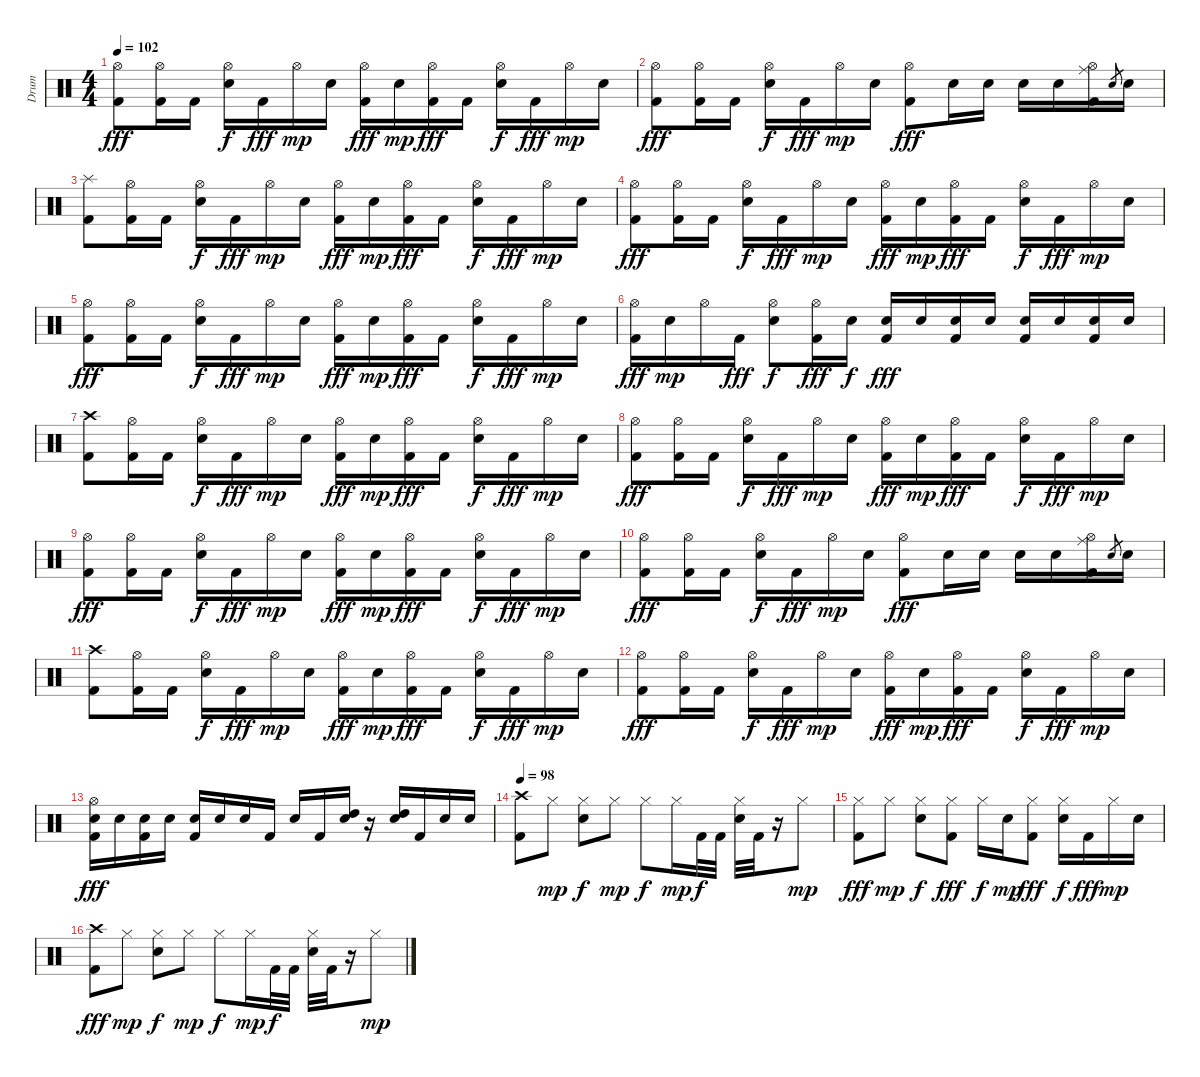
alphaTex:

\track ("Drum" "Drum") {instrument percussion}
\staff {score}
\articulation defaults
\ts (4 4)
\tempo 102
\clef neutral
\ks c
("Hi-Hat (open)" "Kick (hit) 2").8{dy fff} ("Hi-Hat (open)" "Kick (hit) 2").16 "Kick (hit) 2".16 ("Hi-Hat (open)" "Electric Snare (hit)").16{dy f} "Kick (hit) 2".16{dy fff} "Hi-Hat (open)".16{dy mp} "Electric Snare (hit)".16 ("Hi-Hat (open)" "Kick (hit) 2").16{dy fff} "Electric Snare (hit)".16{dy mp} ("Hi-Hat (open)" "Kick (hit) 2").16{dy fff} "Kick (hit) 2".16 ("Hi-Hat (open)" "Electric Snare (hit)").16{dy f} "Kick (hit) 2".16{dy fff} "Hi-Hat (open)".16{dy mp} "Electric Snare (hit)".16 |
("Hi-Hat (open)" "Kick (hit) 2").8{dy fff} ("Hi-Hat (open)" "Kick (hit) 2").16 "Kick (hit) 2".16 ("Hi-Hat (open)" "Electric Snare (hit)").16{dy f} "Kick (hit) 2".16{dy fff} "Hi-Hat (open)".16{dy mp} "Electric Snare (hit)".16 ("Hi-Hat (open)" "Kick (hit) 2").8{dy fff} "Electric Snare (hit)".16 "Electric Snare (hit)".16 "Electric Snare (hit)".16 "Electric Snare (hit)".16 ("Ride (middle)" "Hi-Hat (open)" "Kick (hit) 2").16 "Electric Snare (hit)".8{gr} "Electric Snare (hit)".16 |
("Splash (hit)" "Kick (hit) 2").8 ("Hi-Hat (open)" "Kick (hit) 2").16 "Kick (hit) 2".16 ("Hi-Hat (open)" "Electric Snare (hit)").16{dy f} "Kick (hit) 2".16{dy fff} "Hi-Hat (open)".16{dy mp} "Electric Snare (hit)".16 ("Hi-Hat (open)" "Kick (hit) 2").16{dy fff} "Electric Snare (hit)".16{dy mp} ("Hi-Hat (open)" "Kick (hit) 2").16{dy fff} "Kick (hit) 2".16 ("Hi-Hat (open)" "Electric Snare (hit)").16{dy f} "Kick (hit) 2".16{dy fff} "Hi-Hat (open)".16{dy mp} "Electric Snare (hit)".16 |
("Hi-Hat (open)" "Kick (hit) 2").8{dy fff} ("Hi-Hat (open)" "Kick (hit) 2").16 "Kick (hit) 2".16 ("Hi-Hat (open)" "Electric Snare (hit)").16{dy f} "Kick (hit) 2".16{dy fff} "Hi-Hat (open)".16{dy mp} "Electric Snare (hit)".16 ("Hi-Hat (open)" "Kick (hit) 2").16{dy fff} "Electric Snare (hit)".16{dy mp} ("Hi-Hat (open)" "Kick (hit) 2").16{dy fff} "Kick (hit) 2".16 ("Hi-Hat (open)" "Electric Snare (hit)").16{dy f} "Kick (hit) 2".16{dy fff} "Hi-Hat (open)".16{dy mp} "Electric Snare (hit)".16 |
("Hi-Hat (open)" "Kick (hit) 2").8{dy fff} ("Hi-Hat (open)" "Kick (hit) 2").16 "Kick (hit) 2".16 ("Hi-Hat (open)" "Electric Snare (hit)").16{dy f} "Kick (hit) 2".16{dy fff} "Hi-Hat (open)".16{dy mp} "Electric Snare (hit)".16 ("Hi-Hat (open)" "Kick (hit) 2").16{dy fff} "Electric Snare (hit)".16{dy mp} ("Hi-Hat (open)" "Kick (hit) 2").16{dy fff} "Kick (hit) 2".16 ("Hi-Hat (open)" "Electric Snare (hit)").16{dy f} "Kick (hit) 2".16{dy fff} "Hi-Hat (open)".16{dy mp} "Electric Snare (hit)".16 |
("Hi-Hat (open)" "Kick (hit) 2").16{dy fff} "Electric Snare (hit)".16{dy mp} "Hi-Hat (open)".16 "Kick (hit) 2".16{dy fff} ("Hi-Hat (open)" "Electric Snare (hit)").8{dy f} ("Hi-Hat (open)" "Kick (hit) 2").16{dy fff} "Electric Snare (hit)".16{dy f} ("Electric Snare (hit)" "Kick (hit) 2").16{dy fff} "Electric Snare (hit)".16 ("Electric Snare (hit)" "Kick (hit) 2").16 "Electric Snare (hit)".16 ("Electric Snare (hit)" "Kick (hit) 2").16 "Electric Snare (hit)".16 ("Electric Snare (hit)" "Kick (hit) 2").16 "Electric Snare (hit)".16 |
("Crash high (hit)" "Kick (hit) 2").8 ("Hi-Hat (open)" "Kick (hit) 2").16 "Kick (hit) 2".16 ("Hi-Hat (open)" "Electric Snare (hit)").16{dy f} "Kick (hit) 2".16{dy fff} "Hi-Hat (open)".16{dy mp} "Electric Snare (hit)".16 ("Hi-Hat (open)" "Kick (hit) 2").16{dy fff} "Electric Snare (hit)".16{dy mp} ("Hi-Hat (open)" "Kick (hit) 2").16{dy fff} "Kick (hit) 2".16 ("Hi-Hat (open)" "Electric Snare (hit)").16{dy f} "Kick (hit) 2".16{dy fff} "Hi-Hat (open)".16{dy mp} "Electric Snare (hit)".16 |
("Hi-Hat (open)" "Kick (hit) 2").8{dy fff} ("Hi-Hat (open)" "Kick (hit) 2").16 "Kick (hit) 2".16 ("Hi-Hat (open)" "Electric Snare (hit)").16{dy f} "Kick (hit) 2".16{dy fff} "Hi-Hat (open)".16{dy mp} "Electric Snare (hit)".16 ("Hi-Hat (open)" "Kick (hit) 2").16{dy fff} "Electric Snare (hit)".16{dy mp} ("Hi-Hat (open)" "Kick (hit) 2").16{dy fff} "Kick (hit) 2".16 ("Hi-Hat (open)" "Electric Snare (hit)").16{dy f} "Kick (hit) 2".16{dy fff} "Hi-Hat (open)".16{dy mp} "Electric Snare (hit)".16 |
("Hi-Hat (open)" "Kick (hit) 2").8{dy fff} ("Hi-Hat (open)" "Kick (hit) 2").16 "Kick (hit) 2".16 ("Hi-Hat (open)" "Electric Snare (hit)").16{dy f} "Kick (hit) 2".16{dy fff} "Hi-Hat (open)".16{dy mp} "Electric Snare (hit)".16 ("Hi-Hat (open)" "Kick (hit) 2").16{dy fff} "Electric Snare (hit)".16{dy mp} ("Hi-Hat (open)" "Kick (hit) 2").16{dy fff} "Kick (hit) 2".16 ("Hi-Hat (open)" "Electric Snare (hit)").16{dy f} "Kick (hit) 2".16{dy fff} "Hi-Hat (open)".16{dy mp} "Electric Snare (hit)".16 |
("Hi-Hat (open)" "Kick (hit) 2").8{dy fff} ("Hi-Hat (open)" "Kick (hit) 2").16 "Kick (hit) 2".16 ("Hi-Hat (open)" "Electric Snare (hit)").16{dy f} "Kick (hit) 2".16{dy fff} "Hi-Hat (open)".16{dy mp} "Electric Snare (hit)".16 ("Hi-Hat (open)" "Kick (hit) 2").8{dy fff} "Electric Snare (hit)".16 "Electric Snare (hit)".16 "Electric Snare (hit)".16 "Electric Snare (hit)".16 ("Ride (middle)" "Hi-Hat (open)" "Kick (hit) 2").16 "Electric Snare (hit)".8{gr} "Electric Snare (hit)".16 |
("Crash high (hit)" "Kick (hit) 2").8 ("Hi-Hat (open)" "Kick (hit) 2").16 "Kick (hit) 2".16 ("Hi-Hat (open)" "Electric Snare (hit)").16{dy f} "Kick (hit) 2".16{dy fff} "Hi-Hat (open)".16{dy mp} "Electric Snare (hit)".16 ("Hi-Hat (open)" "Kick (hit) 2").16{dy fff} "Electric Snare (hit)".16{dy mp} ("Hi-Hat (open)" "Kick (hit) 2").16{dy fff} "Kick (hit) 2".16 ("Hi-Hat (open)" "Electric Snare (hit)").16{dy f} "Kick (hit) 2".16{dy fff} "Hi-Hat (open)".16{dy mp} "Electric Snare (hit)".16 |
("Hi-Hat (open)" "Kick (hit) 2").8{dy fff} ("Hi-Hat (open)" "Kick (hit) 2").16 "Kick (hit) 2".16 ("Hi-Hat (open)" "Electric Snare (hit)").16{dy f} "Kick (hit) 2".16{dy fff} "Hi-Hat (open)".16{dy mp} "Electric Snare (hit)".16 ("Hi-Hat (open)" "Kick (hit) 2").16{dy fff} "Electric Snare (hit)".16{dy mp} ("Hi-Hat (open)" "Kick (hit) 2").16{dy fff} "Kick (hit) 2".16 ("Hi-Hat (open)" "Electric Snare (hit)").16{dy f} "Kick (hit) 2".16{dy fff} "Hi-Hat (open)".16{dy mp} "Electric Snare (hit)".16 |
("Hi-Hat (open)" "Electric Snare (hit)" "Kick (hit) 2").16{dy fff} "Electric Snare (hit)".16 ("Electric Snare (hit)" "Kick (hit) 2").16 "Electric Snare (hit)".16 ("Electric Snare (hit)" "Kick (hit) 2").16 "Electric Snare (hit)".16 "Electric Snare (hit)".16 "Kick (hit) 2".16 "Electric Snare (hit)".16 "Kick (hit) 2".16 ("High Tom (hit)" "Electric Snare (hit)").16 r.16 ("High Tom (hit)" "Electric Snare (hit)").16 "Kick (hit) 2".16 "Electric Snare (hit)".16 "Electric Snare (hit)".16 |
\tempo 98
("Crash high (hit)" "Kick (hit) 2").8 "Hi-Hat (closed)".8{dy mp} ("Hi-Hat (closed)" "Electric Snare (hit)").8{dy f} "Hi-Hat (closed)".8{dy mp} "Hi-Hat (closed)".8{dy f} "Hi-Hat (closed)".16{dy mp} "Kick (hit) 2".32{dy f} "Kick (hit) 2".32 ("Hi-Hat (closed)" "Electric Snare (hit)").32 "Kick (hit) 2".32 r.16 "Hi-Hat (closed)".8{dy mp} |
("Hi-Hat (closed)" "Kick (hit) 2").8{dy fff} "Hi-Hat (closed)".8{dy mp} ("Hi-Hat (closed)" "Electric Snare (hit)").8{dy f} ("Hi-Hat (closed)" "Kick (hit) 2").8{dy fff} "Hi-Hat (closed)".16{dy f} "Electric Snare (hit)".16{dy mp} ("Hi-Hat (closed)" "Kick (hit) 2").8{dy fff} ("Hi-Hat (closed)" "Electric Snare (hit)").16{dy f} "Kick (hit) 2".16{dy fff} "Hi-Hat (closed)".16{dy mp} "Electric Snare (hit)".16 |
("Crash high (hit)" "Kick (hit) 2").8{dy fff} "Hi-Hat (closed)".8{dy mp} ("Hi-Hat (closed)" "Electric Snare (hit)").8{dy f} "Hi-Hat (closed)".8{dy mp} "Hi-Hat (closed)".8{dy f} "Hi-Hat (closed)".16{dy mp} "Kick (hit) 2".32{dy f} "Kick (hit) 2".32 ("Hi-Hat (closed)" "Electric Snare (hit)").32 "Kick (hit) 2".32 r.16 "Hi-Hat (closed)".8{dy mp}
